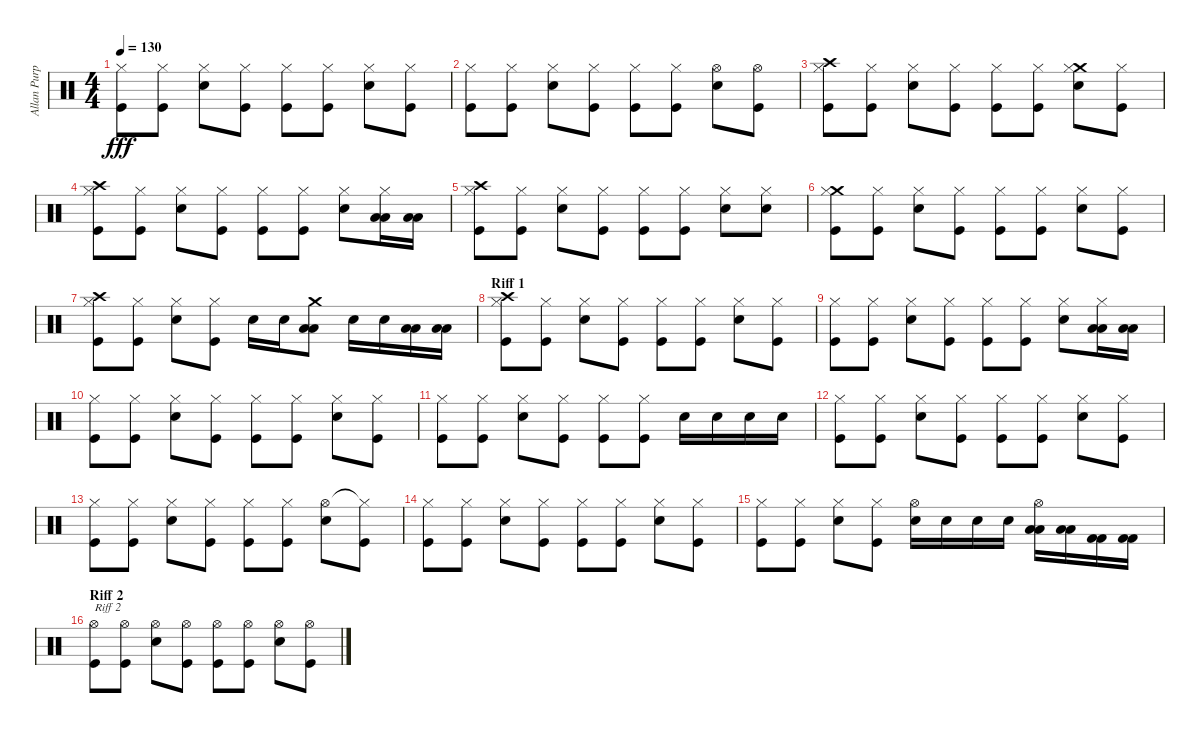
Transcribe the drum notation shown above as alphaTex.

\track ("Allan Purple" "Allan Purp") {instrument percussion}
\staff {score}
\articulation defaults
\ts (4 4)
\tempo 130
\clef neutral
\ks c
("Hi-Hat (closed)" "Kick (hit)").8{dy fff} ("Hi-Hat (closed)" "Kick (hit)").8 ("Hi-Hat (closed)" "Electric Snare (hit)").8 ("Hi-Hat (closed)" "Kick (hit)").8 ("Hi-Hat (closed)" "Kick (hit)").8 ("Hi-Hat (closed)" "Kick (hit)").8 ("Hi-Hat (closed)" "Electric Snare (hit)").8 ("Hi-Hat (closed)" "Kick (hit)").8 |
("Hi-Hat (closed)" "Kick (hit)").8 ("Hi-Hat (closed)" "Kick (hit)").8 ("Hi-Hat (closed)" "Electric Snare (hit)").8 ("Hi-Hat (closed)" "Kick (hit)").8 ("Hi-Hat (closed)" "Kick (hit)").8 ("Hi-Hat (closed)" "Kick (hit)").8 ("Hi-Hat (open)" "Electric Snare (hit)").8 ("Hi-Hat (open)" "Kick (hit)").8 |
("Crash high (hit)" "Hi-Hat (closed)" "Kick (hit)").8 ("Hi-Hat (closed)" "Kick (hit)").8 ("Hi-Hat (closed)" "Electric Snare (hit)").8 ("Hi-Hat (closed)" "Kick (hit)").8 ("Hi-Hat (closed)" "Kick (hit)").8 ("Hi-Hat (closed)" "Kick (hit)").8 ("Crash medium (hit)" "Hi-Hat (closed)" "Electric Snare (hit)").8 ("Hi-Hat (closed)" "Kick (hit)").8 |
("Crash high (hit)" "Hi-Hat (closed)" "Kick (hit)").8 ("Hi-Hat (closed)" "Kick (hit)").8 ("Hi-Hat (closed)" "Electric Snare (hit)").8 ("Hi-Hat (closed)" "Kick (hit)").8 ("Hi-Hat (closed)" "Kick (hit)").8 ("Hi-Hat (closed)" "Kick (hit)").8 ("Hi-Hat (closed)" "Electric Snare (hit)").8 ("Hi-Hat (closed)" "Low Tom (hit)" "Low Tom (hit)").16 ("Low Tom (hit)" "Low Tom (hit)").16 |
("Crash high (hit)" "Hi-Hat (closed)" "Kick (hit)").8 ("Hi-Hat (closed)" "Kick (hit)").8 ("Hi-Hat (closed)" "Electric Snare (hit)").8 ("Hi-Hat (closed)" "Kick (hit)").8 ("Hi-Hat (closed)" "Kick (hit)").8 ("Hi-Hat (closed)" "Kick (hit)").8 ("Hi-Hat (closed)" "Electric Snare (hit)").8 ("Hi-Hat (closed)" "Electric Snare (hit)").8 |
("Crash medium (hit)" "Hi-Hat (closed)" "Kick (hit)").8 ("Hi-Hat (closed)" "Kick (hit)").8 ("Hi-Hat (closed)" "Electric Snare (hit)").8 ("Hi-Hat (closed)" "Kick (hit)").8 ("Hi-Hat (closed)" "Kick (hit)").8 ("Hi-Hat (closed)" "Kick (hit)").8 ("Hi-Hat (closed)" "Electric Snare (hit)").8 ("Hi-Hat (closed)" "Kick (hit)").8 |
("Crash high (hit)" "Hi-Hat (closed)" "Kick (hit)").8 ("Hi-Hat (closed)" "Kick (hit)").8 ("Hi-Hat (closed)" "Electric Snare (hit)").8 ("Hi-Hat (closed)" "Kick (hit)").8 "Electric Snare (hit)".16 "Electric Snare (hit)".16 ("Crash medium (hit)" "Low Tom (hit)" "Low Tom (hit)").8 "Snare (hit) 2".16 "Snare (hit) 2".16 ("Low Tom (hit)" "Low Tom (hit)").16 ("Low Tom (hit)" "Low Tom (hit)").16 |
\section ("" "Riff 1")
("Crash high (hit)" "Hi-Hat (closed)" "Kick (hit)").8 ("Hi-Hat (closed)" "Kick (hit)").8 ("Hi-Hat (closed)" "Electric Snare (hit)").8 ("Hi-Hat (closed)" "Kick (hit)").8 ("Hi-Hat (closed)" "Kick (hit)").8 ("Hi-Hat (closed)" "Kick (hit)").8 ("Hi-Hat (closed)" "Electric Snare (hit)").8 ("Hi-Hat (closed)" "Kick (hit)").8 |
("Hi-Hat (closed)" "Kick (hit)").8 ("Hi-Hat (closed)" "Kick (hit)").8 ("Hi-Hat (closed)" "Electric Snare (hit)").8 ("Hi-Hat (closed)" "Kick (hit)").8 ("Hi-Hat (closed)" "Kick (hit)").8 ("Hi-Hat (closed)" "Kick (hit)").8 ("Hi-Hat (closed)" "Electric Snare (hit)").8 ("Hi-Hat (closed)" "Low Tom (hit)" "Low Tom (hit)").16 ("Low Tom (hit)" "Low Tom (hit)").16 |
("Hi-Hat (closed)" "Kick (hit)").8 ("Hi-Hat (closed)" "Kick (hit)").8 ("Hi-Hat (closed)" "Electric Snare (hit)").8 ("Hi-Hat (closed)" "Kick (hit)").8 ("Hi-Hat (closed)" "Kick (hit)").8 ("Hi-Hat (closed)" "Kick (hit)").8 ("Hi-Hat (closed)" "Electric Snare (hit)").8 ("Hi-Hat (closed)" "Kick (hit)").8 |
("Hi-Hat (closed)" "Kick (hit)").8 ("Hi-Hat (closed)" "Kick (hit)").8 ("Hi-Hat (closed)" "Electric Snare (hit)").8 ("Hi-Hat (closed)" "Kick (hit)").8 ("Hi-Hat (closed)" "Kick (hit)").8 ("Hi-Hat (closed)" "Kick (hit)").8 "Electric Snare (hit)".16 "Electric Snare (hit)".16 "Snare (hit) 2".16 "Snare (hit) 2".16 |
("Hi-Hat (closed)" "Kick (hit)").8 ("Hi-Hat (closed)" "Kick (hit)").8 ("Hi-Hat (closed)" "Electric Snare (hit)").8 ("Hi-Hat (closed)" "Kick (hit)").8 ("Hi-Hat (closed)" "Kick (hit)").8 ("Hi-Hat (closed)" "Kick (hit)").8 ("Hi-Hat (closed)" "Electric Snare (hit)").8 ("Hi-Hat (closed)" "Kick (hit)").8 |
("Hi-Hat (closed)" "Kick (hit)").8 ("Hi-Hat (closed)" "Kick (hit)").8 ("Hi-Hat (closed)" "Electric Snare (hit)").8 ("Hi-Hat (closed)" "Kick (hit)").8 ("Hi-Hat (closed)" "Kick (hit)").8 ("Hi-Hat (closed)" "Kick (hit)").8 ("Hi-Hat (open)" "Electric Snare (hit)").8 ("Hi-Hat (closed)"{t} "Kick (hit)").8 |
("Hi-Hat (closed)" "Kick (hit)").8 ("Hi-Hat (closed)" "Kick (hit)").8 ("Hi-Hat (closed)" "Electric Snare (hit)").8 ("Hi-Hat (closed)" "Kick (hit)").8 ("Hi-Hat (closed)" "Kick (hit)").8 ("Hi-Hat (closed)" "Kick (hit)").8 ("Hi-Hat (closed)" "Electric Snare (hit)").8 ("Hi-Hat (closed)" "Kick (hit)").8 |
("Hi-Hat (closed)" "Kick (hit)").8 ("Hi-Hat (closed)" "Kick (hit)").8 ("Hi-Hat (closed)" "Electric Snare (hit)").8 ("Hi-Hat (closed)" "Kick (hit)").8 ("Hi-Hat (open)" "Electric Snare (hit)").16 "Electric Snare (hit)".16 "Snare (hit) 2".16 "Snare (hit) 2".16 ("Hi-Hat (open)" "Low Tom (hit)" "Low Tom (hit)").16 ("Low Tom (hit)" "Low Tom (hit)").16 ("Kick (hit) 2" "Kick (hit) 2").16 ("Kick (hit) 2" "Kick (hit) 2").16 |
\section ("" "Riff 2")
("Hi-Hat (open)" "Kick (hit)").8{txt "Riff 2"} ("Hi-Hat (open)" "Kick (hit)").8 ("Hi-Hat (open)" "Electric Snare (hit)").8 ("Hi-Hat (open)" "Kick (hit)").8 ("Hi-Hat (open)" "Kick (hit)").8 ("Hi-Hat (open)" "Kick (hit)").8 ("Hi-Hat (open)" "Electric Snare (hit)").8 ("Hi-Hat (open)" "Kick (hit)").8
